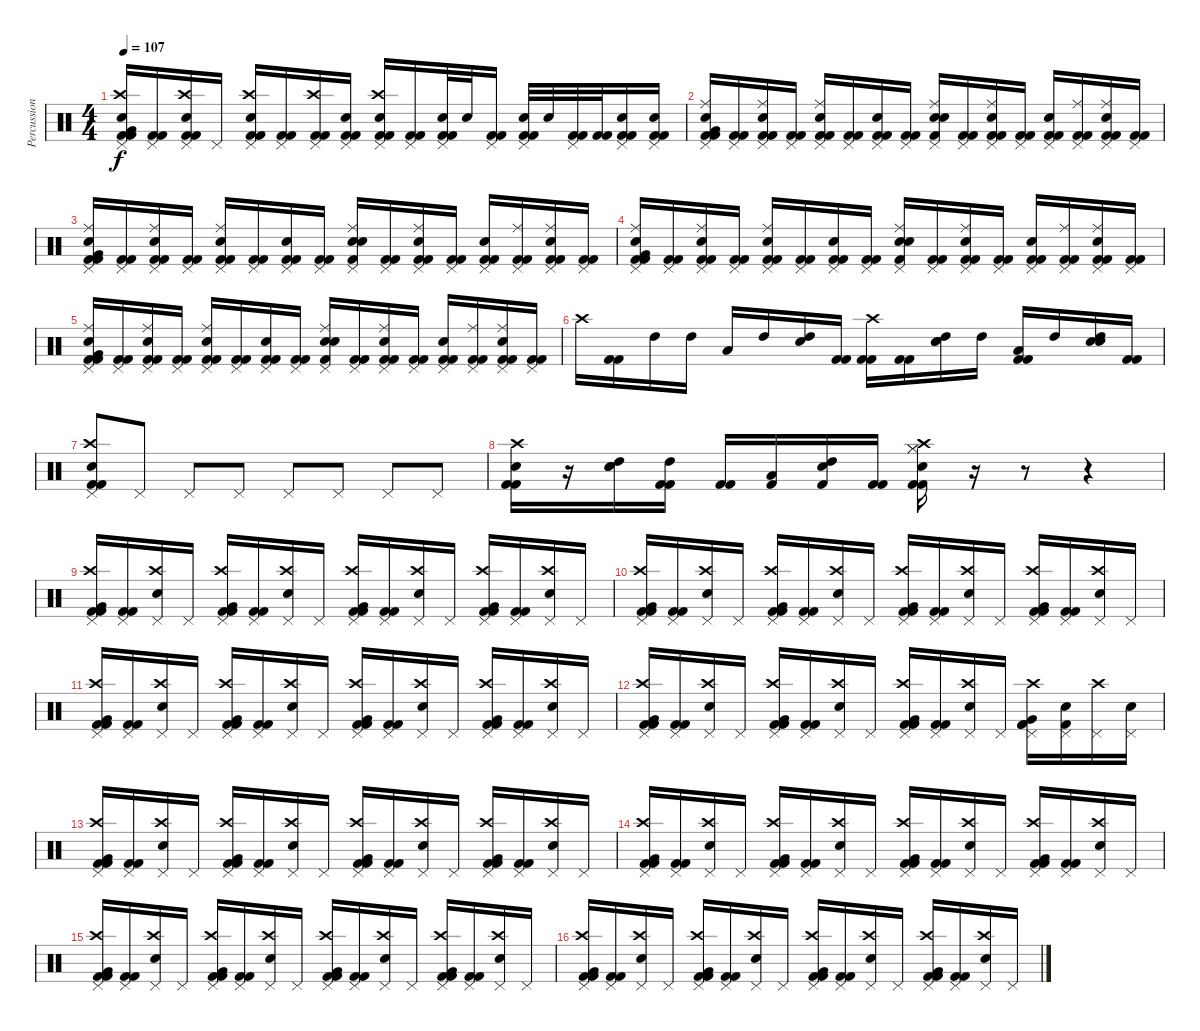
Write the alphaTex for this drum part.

\track ("Percussion" "Percussion") {instrument percussion}
\staff {score}
\articulation defaults
\ts (4 4)
\tempo 107
\clef neutral
\ks c
("Pedal Hi-Hat (hit)" "Crash high (hit)" "Very Low Tom (hit)" "Electric Snare (hit)" "Kick (hit) 2" "Kick (hit) 2").16{dy f} ("Pedal Hi-Hat (hit)" "Kick (hit) 2" "Kick (hit) 2").16 ("Pedal Hi-Hat (hit)" "Crash high (hit)" "Electric Snare (hit)" "Kick (hit) 2" "Kick (hit) 2").16 "Pedal Hi-Hat (hit)".16 ("Pedal Hi-Hat (hit)" "Crash high (hit)" "Electric Snare (hit)" "Kick (hit) 2" "Kick (hit) 2").16 ("Pedal Hi-Hat (hit)" "Kick (hit) 2" "Kick (hit) 2").16 ("Pedal Hi-Hat (hit)" "Crash high (hit)" "Kick (hit) 2" "Kick (hit) 2").16 ("Pedal Hi-Hat (hit)" "Electric Snare (hit)" "Kick (hit) 2" "Kick (hit) 2").16 ("Pedal Hi-Hat (hit)" "Crash high (hit)" "Electric Snare (hit)" "Kick (hit) 2" "Kick (hit) 2").16 ("Pedal Hi-Hat (hit)" "Kick (hit) 2" "Kick (hit) 2").16 ("Pedal Hi-Hat (hit)" "Electric Snare (hit)" "Kick (hit) 2" "Kick (hit) 2").32 "Electric Snare (hit)".32 ("Pedal Hi-Hat (hit)" "Kick (hit) 2" "Kick (hit) 2").16 ("Pedal Hi-Hat (hit)" "Electric Snare (hit)" "Kick (hit) 2" "Kick (hit) 2").32 "Electric Snare (hit)".32 ("Pedal Hi-Hat (hit)" "Kick (hit) 2" "Kick (hit) 2").32 ("Kick (hit) 2" "Kick (hit) 2").32 ("Pedal Hi-Hat (hit)" "Electric Snare (hit)" "Kick (hit) 2" "Kick (hit) 2").16 ("Pedal Hi-Hat (hit)" "Electric Snare (hit)" "Kick (hit) 2" "Kick (hit) 2").16 |
("Pedal Hi-Hat (hit)" "Ride (middle)" "Very Low Tom (hit)" "Electric Snare (hit)" "Kick (hit) 2" "Kick (hit) 2").16 ("Pedal Hi-Hat (hit)" "Kick (hit) 2" "Kick (hit) 2").16 ("Pedal Hi-Hat (hit)" "Ride (middle)" "Electric Snare (hit)" "Kick (hit) 2" "Kick (hit) 2").16 ("Pedal Hi-Hat (hit)" "Kick (hit) 2" "Kick (hit) 2").16 ("Pedal Hi-Hat (hit)" "Ride (middle)" "Electric Snare (hit)" "Kick (hit) 2" "Kick (hit) 2").16 ("Pedal Hi-Hat (hit)" "Kick (hit) 2" "Kick (hit) 2").16 ("Pedal Hi-Hat (hit)" "Electric Snare (hit)" "Kick (hit) 2" "Kick (hit) 2").16 ("Pedal Hi-Hat (hit)" "Kick (hit) 2" "Kick (hit) 2").16 ("Pedal Hi-Hat (hit)" "Ride (middle)" "Electric Snare (hit)" "Electric Snare (hit)" "Kick (hit) 2").16 ("Pedal Hi-Hat (hit)" "Kick (hit) 2" "Kick (hit) 2").16 ("Pedal Hi-Hat (hit)" "Ride (middle)" "Electric Snare (hit)" "Kick (hit) 2" "Kick (hit) 2").16 ("Pedal Hi-Hat (hit)" "Kick (hit) 2" "Kick (hit) 2").16 ("Pedal Hi-Hat (hit)" "Electric Snare (hit)" "Kick (hit) 2" "Kick (hit) 2").16 ("Pedal Hi-Hat (hit)" "Ride (middle)" "Kick (hit) 2" "Kick (hit) 2").16 ("Pedal Hi-Hat (hit)" "Ride (middle)" "Electric Snare (hit)" "Kick (hit) 2" "Kick (hit) 2").16 ("Pedal Hi-Hat (hit)" "Kick (hit) 2" "Kick (hit) 2").16 |
("Pedal Hi-Hat (hit)" "Ride (middle)" "Very Low Tom (hit)" "Electric Snare (hit)" "Kick (hit) 2" "Kick (hit) 2").16 ("Pedal Hi-Hat (hit)" "Kick (hit) 2" "Kick (hit) 2").16 ("Pedal Hi-Hat (hit)" "Ride (middle)" "Electric Snare (hit)" "Kick (hit) 2" "Kick (hit) 2").16 ("Pedal Hi-Hat (hit)" "Kick (hit) 2" "Kick (hit) 2").16 ("Pedal Hi-Hat (hit)" "Ride (middle)" "Electric Snare (hit)" "Kick (hit) 2" "Kick (hit) 2").16 ("Pedal Hi-Hat (hit)" "Kick (hit) 2" "Kick (hit) 2").16 ("Pedal Hi-Hat (hit)" "Electric Snare (hit)" "Kick (hit) 2" "Kick (hit) 2").16 ("Pedal Hi-Hat (hit)" "Kick (hit) 2" "Kick (hit) 2").16 ("Pedal Hi-Hat (hit)" "Ride (middle)" "Electric Snare (hit)" "Electric Snare (hit)" "Kick (hit) 2").16 ("Pedal Hi-Hat (hit)" "Kick (hit) 2" "Kick (hit) 2").16 ("Pedal Hi-Hat (hit)" "Ride (middle)" "Electric Snare (hit)" "Kick (hit) 2" "Kick (hit) 2").16 ("Pedal Hi-Hat (hit)" "Kick (hit) 2" "Kick (hit) 2").16 ("Pedal Hi-Hat (hit)" "Electric Snare (hit)" "Kick (hit) 2" "Kick (hit) 2").16 ("Pedal Hi-Hat (hit)" "Ride (middle)" "Kick (hit) 2" "Kick (hit) 2").16 ("Pedal Hi-Hat (hit)" "Ride (middle)" "Electric Snare (hit)" "Kick (hit) 2" "Kick (hit) 2").16 ("Pedal Hi-Hat (hit)" "Kick (hit) 2" "Kick (hit) 2").16 |
("Pedal Hi-Hat (hit)" "Ride (middle)" "Very Low Tom (hit)" "Electric Snare (hit)" "Kick (hit) 2" "Kick (hit) 2").16 ("Pedal Hi-Hat (hit)" "Kick (hit) 2" "Kick (hit) 2").16 ("Pedal Hi-Hat (hit)" "Ride (middle)" "Electric Snare (hit)" "Kick (hit) 2" "Kick (hit) 2").16 ("Pedal Hi-Hat (hit)" "Kick (hit) 2" "Kick (hit) 2").16 ("Pedal Hi-Hat (hit)" "Ride (middle)" "Electric Snare (hit)" "Kick (hit) 2" "Kick (hit) 2").16 ("Pedal Hi-Hat (hit)" "Kick (hit) 2" "Kick (hit) 2").16 ("Pedal Hi-Hat (hit)" "Electric Snare (hit)" "Kick (hit) 2" "Kick (hit) 2").16 ("Pedal Hi-Hat (hit)" "Kick (hit) 2" "Kick (hit) 2").16 ("Pedal Hi-Hat (hit)" "Ride (middle)" "Electric Snare (hit)" "Electric Snare (hit)" "Kick (hit) 2").16 ("Pedal Hi-Hat (hit)" "Kick (hit) 2" "Kick (hit) 2").16 ("Pedal Hi-Hat (hit)" "Ride (middle)" "Electric Snare (hit)" "Kick (hit) 2" "Kick (hit) 2").16 ("Pedal Hi-Hat (hit)" "Kick (hit) 2" "Kick (hit) 2").16 ("Pedal Hi-Hat (hit)" "Electric Snare (hit)" "Kick (hit) 2" "Kick (hit) 2").16 ("Pedal Hi-Hat (hit)" "Ride (middle)" "Kick (hit) 2" "Kick (hit) 2").16 ("Pedal Hi-Hat (hit)" "Ride (middle)" "Electric Snare (hit)" "Kick (hit) 2" "Kick (hit) 2").16 ("Pedal Hi-Hat (hit)" "Kick (hit) 2" "Kick (hit) 2").16 |
("Pedal Hi-Hat (hit)" "Ride (middle)" "Very Low Tom (hit)" "Electric Snare (hit)" "Kick (hit) 2" "Kick (hit) 2").16 ("Pedal Hi-Hat (hit)" "Kick (hit) 2" "Kick (hit) 2").16 ("Pedal Hi-Hat (hit)" "Ride (middle)" "Electric Snare (hit)" "Kick (hit) 2" "Kick (hit) 2").16 ("Pedal Hi-Hat (hit)" "Kick (hit) 2" "Kick (hit) 2").16 ("Pedal Hi-Hat (hit)" "Ride (middle)" "Electric Snare (hit)" "Kick (hit) 2" "Kick (hit) 2").16 ("Pedal Hi-Hat (hit)" "Kick (hit) 2" "Kick (hit) 2").16 ("Pedal Hi-Hat (hit)" "Electric Snare (hit)" "Kick (hit) 2" "Kick (hit) 2").16 ("Pedal Hi-Hat (hit)" "Kick (hit) 2" "Kick (hit) 2").16 ("Pedal Hi-Hat (hit)" "Ride (middle)" "Electric Snare (hit)" "Electric Snare (hit)" "Kick (hit) 2").16 ("Pedal Hi-Hat (hit)" "Kick (hit) 2" "Kick (hit) 2").16 ("Pedal Hi-Hat (hit)" "Ride (middle)" "Electric Snare (hit)" "Kick (hit) 2" "Kick (hit) 2").16 ("Pedal Hi-Hat (hit)" "Kick (hit) 2" "Kick (hit) 2").16 ("Pedal Hi-Hat (hit)" "Electric Snare (hit)" "Kick (hit) 2" "Kick (hit) 2").16 ("Pedal Hi-Hat (hit)" "Ride (middle)" "Kick (hit) 2" "Kick (hit) 2").16 ("Pedal Hi-Hat (hit)" "Ride (middle)" "Electric Snare (hit)" "Kick (hit) 2" "Kick (hit) 2").16 ("Pedal Hi-Hat (hit)" "Kick (hit) 2" "Kick (hit) 2").16 |
"Crash high (hit)".16 ("Kick (hit) 2" "Kick (hit) 2").16 "High Tom (hit)".16 "High Tom (hit)".16 "Low Tom (hit)".16 "High Tom (hit)".16 ("High Tom (hit)" "Electric Snare (hit)").16 ("Kick (hit) 2" "Kick (hit) 2").16 ("Crash high (hit)" "Kick (hit) 2" "Kick (hit) 2").16 ("Kick (hit) 2" "Kick (hit) 2").16 ("High Tom (hit)" "Electric Snare (hit)" "Electric Snare (hit)").16 "High Tom (hit)".16 ("Low Tom (hit)" "Kick (hit) 2" "Kick (hit) 2").16 "High Tom (hit)".16 ("High Tom (hit)" "Electric Snare (hit)" "Electric Snare (hit)").16 ("Kick (hit) 2" "Kick (hit) 2").16 |
("Pedal Hi-Hat (hit)" "Electric Snare (hit)" "Kick (hit) 2" "Kick (hit) 2" "Crash high (hit)").8 "Pedal Hi-Hat (hit)".8 "Pedal Hi-Hat (hit)".8 "Pedal Hi-Hat (hit)".8 "Pedal Hi-Hat (hit)".8 "Pedal Hi-Hat (hit)".8 "Pedal Hi-Hat (hit)".8 "Pedal Hi-Hat (hit)".8 |
("Crash high (hit)" "Electric Snare (hit)" "Kick (hit) 2" "Kick (hit) 2").16 r.16 ("High Tom (hit)" "Electric Snare (hit)" "Electric Snare (hit)").16 ("High Tom (hit)" "Kick (hit) 2" "Kick (hit) 2").16 ("Kick (hit) 2" "Kick (hit) 2").16 ("Low Tom (hit)" "Kick (hit) 2").16 ("High Tom (hit)" "Electric Snare (hit)" "Kick (hit) 2").16 ("Kick (hit) 2" "Kick (hit) 2").16 ("Hi-Hat (closed)" "Hi-Hat (closed)" "Crash high (hit)" "Kick (hit) 2" "Electric Snare (hit)" "Kick (hit) 2").16 r.16 r.8 r.4 |
("Pedal Hi-Hat (hit)" "Crash high (hit)" "Very Low Tom (hit)" "Kick (hit) 2" "Kick (hit) 2").16 ("Pedal Hi-Hat (hit)" "Kick (hit) 2" "Kick (hit) 2").16 ("Pedal Hi-Hat (hit)" "Crash high (hit)" "Electric Snare (hit)").16 "Pedal Hi-Hat (hit)".16 ("Pedal Hi-Hat (hit)" "Crash high (hit)" "Very Low Tom (hit)" "Kick (hit) 2" "Kick (hit) 2").16 ("Pedal Hi-Hat (hit)" "Kick (hit) 2" "Kick (hit) 2").16 ("Pedal Hi-Hat (hit)" "Crash high (hit)" "Electric Snare (hit)").16 "Pedal Hi-Hat (hit)".16 ("Pedal Hi-Hat (hit)" "Crash high (hit)" "Very Low Tom (hit)" "Kick (hit) 2" "Kick (hit) 2").16 ("Pedal Hi-Hat (hit)" "Kick (hit) 2" "Kick (hit) 2").16 ("Pedal Hi-Hat (hit)" "Crash high (hit)" "Electric Snare (hit)").16 "Pedal Hi-Hat (hit)".16 ("Pedal Hi-Hat (hit)" "Crash high (hit)" "Very Low Tom (hit)" "Kick (hit) 2" "Kick (hit) 2").16 ("Pedal Hi-Hat (hit)" "Kick (hit) 2" "Kick (hit) 2").16 ("Pedal Hi-Hat (hit)" "Crash high (hit)" "Electric Snare (hit)").16 "Pedal Hi-Hat (hit)".16 |
("Pedal Hi-Hat (hit)" "Crash high (hit)" "Very Low Tom (hit)" "Kick (hit) 2" "Kick (hit) 2").16 ("Pedal Hi-Hat (hit)" "Kick (hit) 2" "Kick (hit) 2").16 ("Pedal Hi-Hat (hit)" "Crash high (hit)" "Electric Snare (hit)").16 "Pedal Hi-Hat (hit)".16 ("Pedal Hi-Hat (hit)" "Crash high (hit)" "Very Low Tom (hit)" "Kick (hit) 2" "Kick (hit) 2").16 ("Pedal Hi-Hat (hit)" "Kick (hit) 2" "Kick (hit) 2").16 ("Pedal Hi-Hat (hit)" "Crash high (hit)" "Electric Snare (hit)").16 "Pedal Hi-Hat (hit)".16 ("Pedal Hi-Hat (hit)" "Crash high (hit)" "Very Low Tom (hit)" "Kick (hit) 2" "Kick (hit) 2").16 ("Pedal Hi-Hat (hit)" "Kick (hit) 2" "Kick (hit) 2").16 ("Pedal Hi-Hat (hit)" "Crash high (hit)" "Electric Snare (hit)").16 "Pedal Hi-Hat (hit)".16 ("Pedal Hi-Hat (hit)" "Crash high (hit)" "Very Low Tom (hit)" "Kick (hit) 2" "Kick (hit) 2").16 ("Pedal Hi-Hat (hit)" "Kick (hit) 2" "Kick (hit) 2").16 ("Pedal Hi-Hat (hit)" "Crash high (hit)" "Electric Snare (hit)").16 "Pedal Hi-Hat (hit)".16 |
("Pedal Hi-Hat (hit)" "Crash high (hit)" "Very Low Tom (hit)" "Kick (hit) 2" "Kick (hit) 2").16 ("Pedal Hi-Hat (hit)" "Kick (hit) 2" "Kick (hit) 2").16 ("Pedal Hi-Hat (hit)" "Crash high (hit)" "Electric Snare (hit)").16 "Pedal Hi-Hat (hit)".16 ("Pedal Hi-Hat (hit)" "Crash high (hit)" "Very Low Tom (hit)" "Kick (hit) 2" "Kick (hit) 2").16 ("Pedal Hi-Hat (hit)" "Kick (hit) 2" "Kick (hit) 2").16 ("Pedal Hi-Hat (hit)" "Crash high (hit)" "Electric Snare (hit)").16 "Pedal Hi-Hat (hit)".16 ("Pedal Hi-Hat (hit)" "Crash high (hit)" "Very Low Tom (hit)" "Kick (hit) 2" "Kick (hit) 2").16 ("Pedal Hi-Hat (hit)" "Kick (hit) 2" "Kick (hit) 2").16 ("Pedal Hi-Hat (hit)" "Crash high (hit)" "Electric Snare (hit)").16 "Pedal Hi-Hat (hit)".16 ("Pedal Hi-Hat (hit)" "Crash high (hit)" "Very Low Tom (hit)" "Kick (hit) 2" "Kick (hit) 2").16 ("Pedal Hi-Hat (hit)" "Kick (hit) 2" "Kick (hit) 2").16 ("Pedal Hi-Hat (hit)" "Crash high (hit)" "Electric Snare (hit)").16 "Pedal Hi-Hat (hit)".16 |
("Pedal Hi-Hat (hit)" "Crash high (hit)" "Very Low Tom (hit)" "Kick (hit) 2" "Kick (hit) 2").16 ("Pedal Hi-Hat (hit)" "Kick (hit) 2" "Kick (hit) 2").16 ("Pedal Hi-Hat (hit)" "Crash high (hit)" "Electric Snare (hit)").16 "Pedal Hi-Hat (hit)".16 ("Pedal Hi-Hat (hit)" "Crash high (hit)" "Very Low Tom (hit)" "Kick (hit) 2" "Kick (hit) 2").16 ("Pedal Hi-Hat (hit)" "Kick (hit) 2" "Kick (hit) 2").16 ("Pedal Hi-Hat (hit)" "Crash high (hit)" "Electric Snare (hit)").16 "Pedal Hi-Hat (hit)".16 ("Pedal Hi-Hat (hit)" "Crash high (hit)" "Very Low Tom (hit)" "Kick (hit) 2" "Kick (hit) 2").16 ("Pedal Hi-Hat (hit)" "Kick (hit) 2" "Kick (hit) 2").16 ("Pedal Hi-Hat (hit)" "Crash high (hit)" "Electric Snare (hit)").16 "Pedal Hi-Hat (hit)".16 ("Pedal Hi-Hat (hit)" "Crash high (hit)" "Very Low Tom (hit)" "Kick (hit) 2" "Kick (hit) 2").16 ("Pedal Hi-Hat (hit)" "Electric Snare (hit)" "Kick (hit) 2").16 ("Pedal Hi-Hat (hit)" "Crash high (hit)").16 ("Pedal Hi-Hat (hit)" "Electric Snare (hit)").16 |
("Pedal Hi-Hat (hit)" "Crash high (hit)" "Very Low Tom (hit)" "Kick (hit) 2" "Kick (hit) 2").16 ("Pedal Hi-Hat (hit)" "Kick (hit) 2" "Kick (hit) 2").16 ("Pedal Hi-Hat (hit)" "Crash high (hit)" "Electric Snare (hit)").16 "Pedal Hi-Hat (hit)".16 ("Pedal Hi-Hat (hit)" "Crash high (hit)" "Very Low Tom (hit)" "Kick (hit) 2" "Kick (hit) 2").16 ("Pedal Hi-Hat (hit)" "Kick (hit) 2" "Kick (hit) 2").16 ("Pedal Hi-Hat (hit)" "Crash high (hit)" "Electric Snare (hit)").16 "Pedal Hi-Hat (hit)".16 ("Pedal Hi-Hat (hit)" "Crash high (hit)" "Very Low Tom (hit)" "Kick (hit) 2" "Kick (hit) 2").16 ("Pedal Hi-Hat (hit)" "Kick (hit) 2" "Kick (hit) 2").16 ("Pedal Hi-Hat (hit)" "Crash high (hit)" "Electric Snare (hit)").16 "Pedal Hi-Hat (hit)".16 ("Pedal Hi-Hat (hit)" "Crash high (hit)" "Very Low Tom (hit)" "Kick (hit) 2" "Kick (hit) 2").16 ("Pedal Hi-Hat (hit)" "Kick (hit) 2" "Kick (hit) 2").16 ("Pedal Hi-Hat (hit)" "Crash high (hit)" "Electric Snare (hit)").16 "Pedal Hi-Hat (hit)".16 |
("Pedal Hi-Hat (hit)" "Crash high (hit)" "Very Low Tom (hit)" "Kick (hit) 2" "Kick (hit) 2").16 ("Pedal Hi-Hat (hit)" "Kick (hit) 2" "Kick (hit) 2").16 ("Pedal Hi-Hat (hit)" "Crash high (hit)" "Electric Snare (hit)").16 "Pedal Hi-Hat (hit)".16 ("Pedal Hi-Hat (hit)" "Crash high (hit)" "Very Low Tom (hit)" "Kick (hit) 2" "Kick (hit) 2").16 ("Pedal Hi-Hat (hit)" "Kick (hit) 2" "Kick (hit) 2").16 ("Pedal Hi-Hat (hit)" "Crash high (hit)" "Electric Snare (hit)").16 "Pedal Hi-Hat (hit)".16 ("Pedal Hi-Hat (hit)" "Crash high (hit)" "Very Low Tom (hit)" "Kick (hit) 2" "Kick (hit) 2").16 ("Pedal Hi-Hat (hit)" "Kick (hit) 2" "Kick (hit) 2").16 ("Pedal Hi-Hat (hit)" "Crash high (hit)" "Electric Snare (hit)").16 "Pedal Hi-Hat (hit)".16 ("Pedal Hi-Hat (hit)" "Crash high (hit)" "Very Low Tom (hit)" "Kick (hit) 2" "Kick (hit) 2").16 ("Pedal Hi-Hat (hit)" "Kick (hit) 2" "Kick (hit) 2").16 ("Pedal Hi-Hat (hit)" "Crash high (hit)" "Electric Snare (hit)").16 "Pedal Hi-Hat (hit)".16 |
("Pedal Hi-Hat (hit)" "Crash high (hit)" "Very Low Tom (hit)" "Kick (hit) 2" "Kick (hit) 2").16 ("Pedal Hi-Hat (hit)" "Kick (hit) 2" "Kick (hit) 2").16 ("Pedal Hi-Hat (hit)" "Crash high (hit)" "Electric Snare (hit)").16 "Pedal Hi-Hat (hit)".16 ("Pedal Hi-Hat (hit)" "Crash high (hit)" "Very Low Tom (hit)" "Kick (hit) 2" "Kick (hit) 2").16 ("Pedal Hi-Hat (hit)" "Kick (hit) 2" "Kick (hit) 2").16 ("Pedal Hi-Hat (hit)" "Crash high (hit)" "Electric Snare (hit)").16 "Pedal Hi-Hat (hit)".16 ("Pedal Hi-Hat (hit)" "Crash high (hit)" "Very Low Tom (hit)" "Kick (hit) 2" "Kick (hit) 2").16 ("Pedal Hi-Hat (hit)" "Kick (hit) 2" "Kick (hit) 2").16 ("Pedal Hi-Hat (hit)" "Crash high (hit)" "Electric Snare (hit)").16 "Pedal Hi-Hat (hit)".16 ("Pedal Hi-Hat (hit)" "Crash high (hit)" "Very Low Tom (hit)" "Kick (hit) 2" "Kick (hit) 2").16 ("Pedal Hi-Hat (hit)" "Kick (hit) 2" "Kick (hit) 2").16 ("Pedal Hi-Hat (hit)" "Crash high (hit)" "Electric Snare (hit)").16 "Pedal Hi-Hat (hit)".16 |
("Pedal Hi-Hat (hit)" "Crash high (hit)" "Very Low Tom (hit)" "Kick (hit) 2" "Kick (hit) 2").16 ("Pedal Hi-Hat (hit)" "Kick (hit) 2" "Kick (hit) 2").16 ("Pedal Hi-Hat (hit)" "Crash high (hit)" "Electric Snare (hit)").16 "Pedal Hi-Hat (hit)".16 ("Pedal Hi-Hat (hit)" "Crash high (hit)" "Very Low Tom (hit)" "Kick (hit) 2" "Kick (hit) 2").16 ("Pedal Hi-Hat (hit)" "Kick (hit) 2" "Kick (hit) 2").16 ("Pedal Hi-Hat (hit)" "Crash high (hit)" "Electric Snare (hit)").16 "Pedal Hi-Hat (hit)".16 ("Pedal Hi-Hat (hit)" "Crash high (hit)" "Very Low Tom (hit)" "Kick (hit) 2" "Kick (hit) 2").16 ("Pedal Hi-Hat (hit)" "Kick (hit) 2" "Kick (hit) 2").16 ("Pedal Hi-Hat (hit)" "Crash high (hit)" "Electric Snare (hit)").16 "Pedal Hi-Hat (hit)".16 ("Pedal Hi-Hat (hit)" "Crash high (hit)" "Very Low Tom (hit)" "Kick (hit) 2" "Kick (hit) 2").16 ("Pedal Hi-Hat (hit)" "Kick (hit) 2" "Kick (hit) 2").16 ("Pedal Hi-Hat (hit)" "Crash high (hit)" "Electric Snare (hit)").16 "Pedal Hi-Hat (hit)".16
